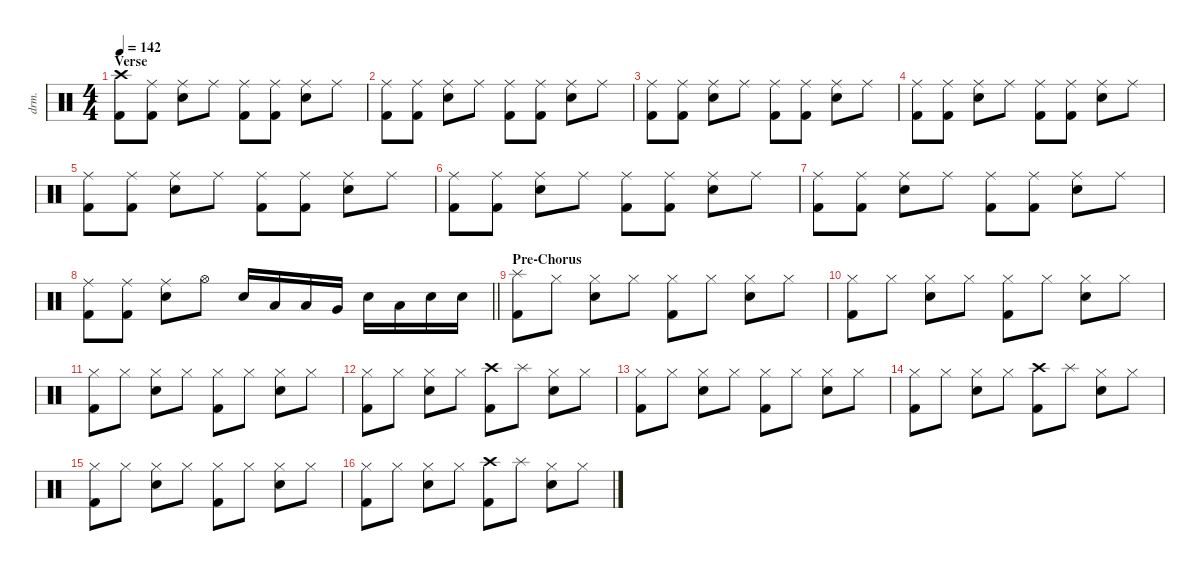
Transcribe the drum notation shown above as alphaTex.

\defaultSystemsLayout 4
\hideDynamics
\bracketExtendMode nobrackets
\otherSystemsTrackNameOrientation horizontal
\track ("Drums" "drm.") {defaultSystemsLayout 4 instrument percussion}
\staff {score}
\articulation defaults
\ts (4 4)
\section ("" "Verse")
\tempo 142
\clef neutral
\ks c
("Crash high (hit)" "Kick (hit) 2").8{dy f beam Down} ("Ride (middle)" "Kick (hit) 2").8{beam Down} ("Ride (middle)" "Snare (hit) 2").8{beam Down} "Ride (middle)".8{beam Down} ("Ride (middle)" "Kick (hit) 2").8{beam Down} ("Ride (middle)" "Kick (hit) 2").8{beam Down} ("Ride (middle)" "Snare (hit) 2").8{beam Down} "Ride (middle)".8{beam Down} |
("Ride (middle)" "Kick (hit) 2").8{beam Down} ("Ride (middle)" "Kick (hit) 2").8{beam Down} ("Ride (middle)" "Snare (hit) 2").8{beam Down} "Ride (middle)".8{beam Down} ("Ride (middle)" "Kick (hit) 2").8{beam Down} ("Ride (middle)" "Kick (hit) 2").8{beam Down} ("Ride (middle)" "Snare (hit) 2").8{beam Down} "Ride (middle)".8{beam Down} |
("Ride (middle)" "Kick (hit) 2").8{beam Down} ("Ride (middle)" "Kick (hit) 2").8{beam Down} ("Ride (middle)" "Snare (hit) 2").8{beam Down} "Ride (middle)".8{beam Down} ("Ride (middle)" "Kick (hit) 2").8{beam Down} ("Ride (middle)" "Kick (hit) 2").8{beam Down} ("Ride (middle)" "Snare (hit) 2").8{beam Down} "Ride (middle)".8{beam Down} |
("Ride (middle)" "Kick (hit) 2").8{beam Down} ("Ride (middle)" "Kick (hit) 2").8{beam Down} ("Ride (middle)" "Snare (hit) 2").8{beam Down} "Ride (middle)".8{beam Down} ("Ride (middle)" "Kick (hit) 2").8{beam Down} ("Ride (middle)" "Kick (hit) 2").8{beam Down} ("Ride (middle)" "Snare (hit) 2").8{beam Down} "Ride (middle)".8{beam Down} |
("Ride (middle)" "Kick (hit) 2").8{beam Down} ("Ride (middle)" "Kick (hit) 2").8{beam Down} ("Ride (middle)" "Snare (hit) 2").8{beam Down} "Ride (middle)".8{beam Down} ("Ride (middle)" "Kick (hit) 2").8{beam Down} ("Ride (middle)" "Kick (hit) 2").8{beam Down} ("Ride (middle)" "Snare (hit) 2").8{beam Down} "Ride (middle)".8{beam Down} |
("Ride (middle)" "Kick (hit) 2").8{beam Down} ("Ride (middle)" "Kick (hit) 2").8{beam Down} ("Ride (middle)" "Snare (hit) 2").8{beam Down} "Ride (middle)".8{beam Down} ("Ride (middle)" "Kick (hit) 2").8{beam Down} ("Ride (middle)" "Kick (hit) 2").8{beam Down} ("Ride (middle)" "Snare (hit) 2").8{beam Down} "Ride (middle)".8{beam Down} |
("Ride (middle)" "Kick (hit) 2").8{beam Down} ("Ride (middle)" "Kick (hit) 2").8{beam Down} ("Ride (middle)" "Snare (hit) 2").8{beam Down} "Ride (middle)".8{beam Down} ("Ride (middle)" "Kick (hit) 2").8{beam Down} ("Ride (middle)" "Kick (hit) 2").8{beam Down} ("Ride (middle)" "Snare (hit) 2").8{beam Down} "Ride (middle)".8{beam Down} |
\barLineRight lightlight
("Ride (middle)" "Kick (hit) 2").8{beam Down} ("Ride (middle)" "Kick (hit) 2").8{beam Down} ("Ride (middle)" "Snare (hit) 2").8{beam Down} "Hi-Hat (open)".8{beam Down} "Snare (hit) 2".16{beam Up} "Low Tom (hit)".16{beam Up} "Low Tom (hit)".16{beam Up} "Very Low Tom (hit)".16{beam Up} "Snare (hit) 2".16{beam Down} "Low Tom (hit)".16{beam Down} "Snare (hit) 2".16{beam Down} "Snare (hit) 2".16{beam Down} |
\section ("" "Pre-Chorus")
("Splash (hit)" "Kick (hit) 2").8{beam Down} "Hi-Hat (closed)".8{beam Down} ("Hi-Hat (closed)" "Snare (hit) 2").8{beam Down} "Hi-Hat (closed)".8{beam Down} ("Hi-Hat (closed)" "Kick (hit) 2").8{beam Down} "Hi-Hat (closed)".8{beam Down} ("Hi-Hat (closed)" "Snare (hit) 2").8{beam Down} "Hi-Hat (closed)".8{beam Down} |
("Hi-Hat (closed)" "Kick (hit) 2").8{beam Down} "Hi-Hat (closed)".8{beam Down} ("Hi-Hat (closed)" "Snare (hit) 2").8{beam Down} "Hi-Hat (closed)".8{beam Down} ("Hi-Hat (closed)" "Kick (hit) 2").8{beam Down} "Hi-Hat (closed)".8{beam Down} ("Hi-Hat (closed)" "Snare (hit) 2").8{beam Down} "Hi-Hat (closed)".8{beam Down} |
("Hi-Hat (closed)" "Kick (hit) 2").8{beam Down} "Hi-Hat (closed)".8{beam Down} ("Hi-Hat (closed)" "Snare (hit) 2").8{beam Down} "Hi-Hat (closed)".8{beam Down} ("Hi-Hat (closed)" "Kick (hit) 2").8{beam Down} "Hi-Hat (closed)".8{beam Down} ("Hi-Hat (closed)" "Snare (hit) 2").8{beam Down} "Hi-Hat (closed)".8{beam Down} |
("Hi-Hat (closed)" "Kick (hit) 2").8{beam Down} "Hi-Hat (closed)".8{beam Down} ("Hi-Hat (closed)" "Snare (hit) 2").8{beam Down} "Hi-Hat (closed)".8{beam Down} ("Crash high (hit)" "Kick (hit) 2").8{beam Down} "Splash (hit)".8{beam Down} ("Hi-Hat (closed)" "Snare (hit) 2").8{beam Down} "Hi-Hat (closed)".8{beam Down} |
("Hi-Hat (closed)" "Kick (hit) 2").8{beam Down} "Hi-Hat (closed)".8{beam Down} ("Hi-Hat (closed)" "Snare (hit) 2").8{beam Down} "Hi-Hat (closed)".8{beam Down} ("Hi-Hat (closed)" "Kick (hit) 2").8{beam Down} "Hi-Hat (closed)".8{beam Down} ("Hi-Hat (closed)" "Snare (hit) 2").8{beam Down} "Hi-Hat (closed)".8{beam Down} |
("Hi-Hat (closed)" "Kick (hit) 2").8{beam Down} "Hi-Hat (closed)".8{beam Down} ("Hi-Hat (closed)" "Snare (hit) 2").8{beam Down} "Hi-Hat (closed)".8{beam Down} ("Crash high (hit)" "Kick (hit) 2").8{beam Down} "Splash (hit)".8{beam Down} ("Hi-Hat (closed)" "Snare (hit) 2").8{beam Down} "Hi-Hat (closed)".8{beam Down} |
("Hi-Hat (closed)" "Kick (hit) 2").8{beam Down} "Hi-Hat (closed)".8{beam Down} ("Hi-Hat (closed)" "Snare (hit) 2").8{beam Down} "Hi-Hat (closed)".8{beam Down} ("Hi-Hat (closed)" "Kick (hit) 2").8{beam Down} "Hi-Hat (closed)".8{beam Down} ("Hi-Hat (closed)" "Snare (hit) 2").8{beam Down} "Hi-Hat (closed)".8{beam Down} |
("Hi-Hat (closed)" "Kick (hit) 2").8{beam Down} "Hi-Hat (closed)".8{beam Down} ("Hi-Hat (closed)" "Snare (hit) 2").8{beam Down} "Hi-Hat (closed)".8{beam Down} ("Crash high (hit)" "Kick (hit) 2").8{beam Down} "Splash (hit)".8{beam Down} ("Hi-Hat (closed)" "Snare (hit) 2").8{beam Down} "Hi-Hat (closed)".8{beam Down}
